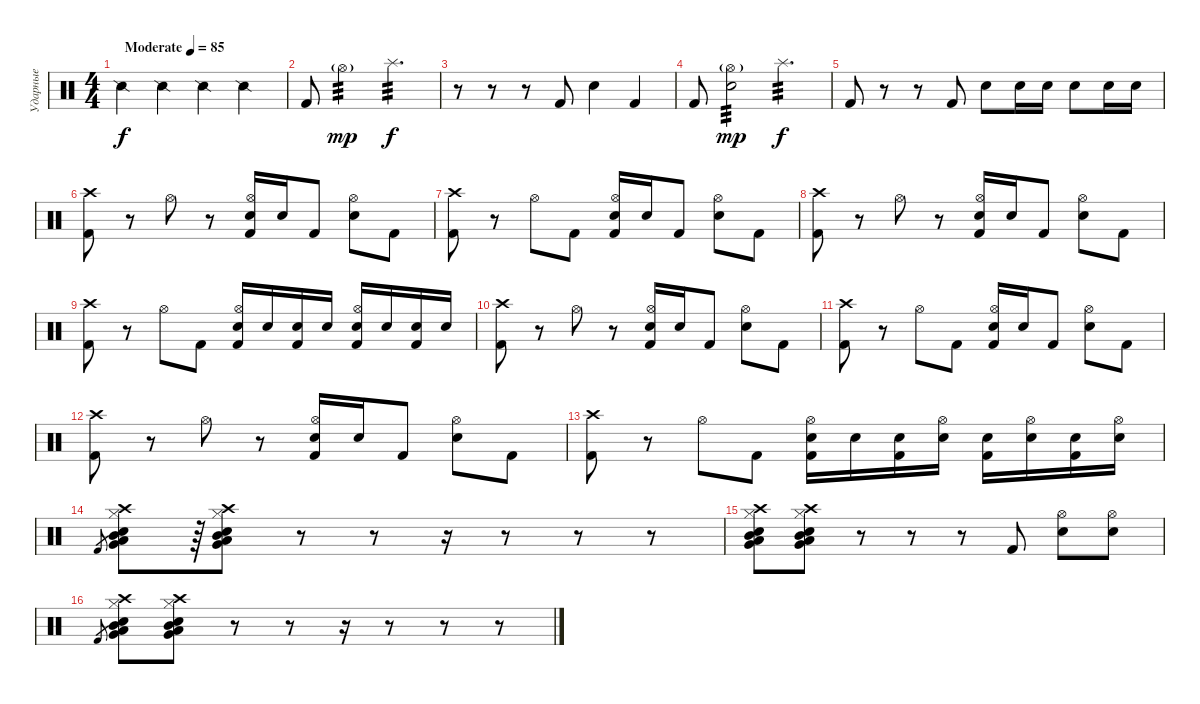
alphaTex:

\track ("Ударные" "Ударные") {instrument percussion}
\staff {score}
\articulation defaults
\ts (4 4)
\tempo (85 "Moderate")
\clef neutral
\ks c "Snare (side stick) 2".4{dy f} "Snare (side stick) 2".4 "Snare (side stick) 2".4 "Snare (side stick) 2".4
|
"Kick (hit) 2".8 "Hi-Hat (open)"{g}.2{tp 3 dy mp} "Splash (hit)".4{d tp 3 dy f} |
r.8 r.8 r.8 "Kick (hit) 2".8 "Electric Snare (hit)".4 "Kick (hit) 2".4 |
"Kick (hit) 2".8 ("Hi-Hat (open)"{g} "Electric Snare (hit)").2{tp 3 dy mp} "Splash (hit)".4{d tp 3 dy f} |
"Kick (hit) 2".8{volume 13} r.8 r.8 "Kick (hit) 2".8 "Electric Snare (hit)".8 "Electric Snare (hit)".16 "Electric Snare (hit)".16 "Electric Snare (hit)".8 "Electric Snare (hit)".16 "Electric Snare (hit)".16 |
("Crash high (hit)" "Kick (hit) 2").8{volume 14} r.8 "Hi-Hat (open)".8 r.8 ("Hi-Hat (open)" "Electric Snare (hit)" "Kick (hit) 2").16 "Electric Snare (hit)".16 "Kick (hit) 2".8 ("Hi-Hat (open)" "Electric Snare (hit)").8 "Kick (hit) 2".8 |
("Crash high (hit)" "Kick (hit) 2").8 r.8 "Hi-Hat (open)".8 "Kick (hit) 2".8 ("Hi-Hat (open)" "Electric Snare (hit)" "Kick (hit) 2").16 "Electric Snare (hit)".16 "Kick (hit) 2".8 ("Hi-Hat (open)" "Electric Snare (hit)").8 "Kick (hit) 2".8 |
("Crash high (hit)" "Kick (hit) 2").8 r.8 "Hi-Hat (open)".8 r.8 ("Hi-Hat (open)" "Electric Snare (hit)" "Kick (hit) 2").16 "Electric Snare (hit)".16 "Kick (hit) 2".8 ("Hi-Hat (open)" "Electric Snare (hit)").8 "Kick (hit) 2".8 |
("Crash high (hit)" "Kick (hit) 2").8 r.8 "Hi-Hat (open)".8 "Kick (hit) 2".8 ("Hi-Hat (open)" "Electric Snare (hit)" "Kick (hit) 2").16 "Electric Snare (hit)".16 ("Electric Snare (hit)" "Kick (hit) 2").16 "Electric Snare (hit)".16 ("Hi-Hat (open)" "Electric Snare (hit)" "Kick (hit) 2").16 "Electric Snare (hit)".16 ("Electric Snare (hit)" "Kick (hit) 2").16 "Electric Snare (hit)".16 |
("Crash high (hit)" "Kick (hit) 2").8 r.8 "Hi-Hat (open)".8 r.8 ("Hi-Hat (open)" "Electric Snare (hit)" "Kick (hit) 2").16 "Electric Snare (hit)".16 "Kick (hit) 2".8 ("Hi-Hat (open)" "Electric Snare (hit)").8 "Kick (hit) 2".8 |
("Crash high (hit)" "Kick (hit) 2").8 r.8 "Hi-Hat (open)".8 "Kick (hit) 2".8 ("Hi-Hat (open)" "Electric Snare (hit)" "Kick (hit) 2").16 "Electric Snare (hit)".16 "Kick (hit) 2".8 ("Hi-Hat (open)" "Electric Snare (hit)").8 "Kick (hit) 2".8 |
("Crash high (hit)" "Kick (hit) 2").8 r.8 "Hi-Hat (open)".8 r.8 ("Hi-Hat (open)" "Electric Snare (hit)" "Kick (hit) 2").16 "Electric Snare (hit)".16 "Kick (hit) 2".8 ("Hi-Hat (open)" "Electric Snare (hit)").8 "Kick (hit) 2".8 |
("Crash high (hit)" "Kick (hit) 2").8 r.8 "Hi-Hat (open)".8 "Kick (hit) 2".8 ("Hi-Hat (open)" "Electric Snare (hit)" "Kick (hit) 2").16 "Electric Snare (hit)".16 ("Electric Snare (hit)" "Kick (hit) 2").16 ("Hi-Hat (open)" "Electric Snare (hit)").16 ("Electric Snare (hit)" "Kick (hit) 2").16 ("Hi-Hat (open)" "Electric Snare (hit)").16 ("Electric Snare (hit)" "Kick (hit) 2").16 ("Hi-Hat (open)" "Electric Snare (hit)").16 |
"Kick (hit) 2".8{gr} ("Crash high (hit)" "Very Low Tom (hit)" "Low Floor Tom (hit)" "Mid Tom (hit)" "Electric Snare (hit)" "Hi-Hat (closed)").8 r.64 ("Crash high (hit)" "Very Low Tom (hit)" "Low Floor Tom (hit)" "Mid Tom (hit)" "Electric Snare (hit)" "Hi-Hat (closed)").8 r.8 r.8 r.16 r.8 r.8 r.8 |
("Crash high (hit)" "Very Low Tom (hit)" "Low Floor Tom (hit)" "Mid Tom (hit)" "Electric Snare (hit)" "Hi-Hat (closed)").8 ("Crash high (hit)" "Very Low Tom (hit)" "Low Floor Tom (hit)" "Mid Tom (hit)" "Electric Snare (hit)" "Hi-Hat (closed)").8 r.8 r.8 r.8 "Kick (hit) 2".8 ("Hi-Hat (open)" "Electric Snare (hit)").8 ("Hi-Hat (open)" "Electric Snare (hit)").8 |
"Kick (hit) 2".8{gr} ("Crash high (hit)" "Very Low Tom (hit)" "Low Floor Tom (hit)" "Mid Tom (hit)" "Electric Snare (hit)" "Hi-Hat (closed)").8 ("Crash high (hit)" "Very Low Tom (hit)" "Low Floor Tom (hit)" "Mid Tom (hit)" "Electric Snare (hit)" "Hi-Hat (closed)").8 r.8 r.8 r.16 r.8 r.8 r.8
